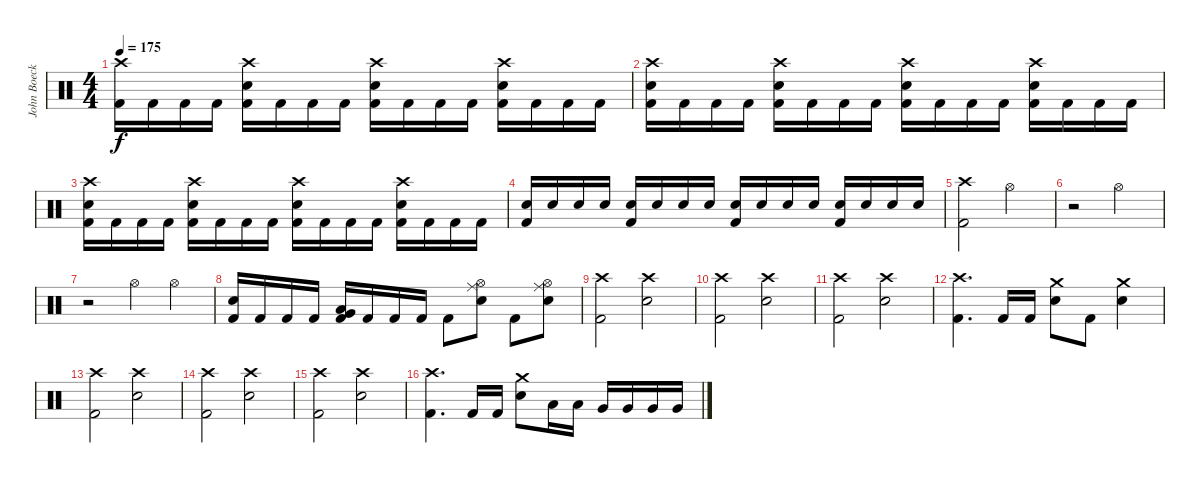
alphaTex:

\track ("John Boecklin (Drums)" "John Boeck") {instrument percussion}
\staff {score}
\articulation defaults
\ts (4 4)
\tempo 175
\clef neutral
\ks c
("Crash high (hit)" "Kick (hit) 2").16{dy f} "Kick (hit) 2".16 "Kick (hit) 2".16 "Kick (hit) 2".16 ("Crash high (hit)" "Snare (hit) 2" "Kick (hit) 2").16 "Kick (hit) 2".16 "Kick (hit) 2".16 "Kick (hit) 2".16 ("Crash high (hit)" "Snare (hit) 2" "Kick (hit) 2").16 "Kick (hit) 2".16 "Kick (hit) 2".16 "Kick (hit) 2".16 ("Crash high (hit)" "Snare (hit) 2" "Kick (hit) 2").16 "Kick (hit) 2".16 "Kick (hit) 2".16 "Kick (hit) 2".16 |
("Crash high (hit)" "Snare (hit) 2" "Kick (hit) 2").16 "Kick (hit) 2".16 "Kick (hit) 2".16 "Kick (hit) 2".16 ("Crash high (hit)" "Snare (hit) 2" "Kick (hit) 2").16 "Kick (hit) 2".16 "Kick (hit) 2".16 "Kick (hit) 2".16 ("Crash high (hit)" "Snare (hit) 2" "Kick (hit) 2").16 "Kick (hit) 2".16 "Kick (hit) 2".16 "Kick (hit) 2".16 ("Crash high (hit)" "Snare (hit) 2" "Kick (hit) 2").16 "Kick (hit) 2".16 "Kick (hit) 2".16 "Kick (hit) 2".16 |
("Crash high (hit)" "Snare (hit) 2" "Kick (hit) 2").16 "Kick (hit) 2".16 "Kick (hit) 2".16 "Kick (hit) 2".16 ("Crash high (hit)" "Snare (hit) 2" "Kick (hit) 2").16 "Kick (hit) 2".16 "Kick (hit) 2".16 "Kick (hit) 2".16 ("Crash high (hit)" "Snare (hit) 2" "Kick (hit) 2").16 "Kick (hit) 2".16 "Kick (hit) 2".16 "Kick (hit) 2".16 ("Crash high (hit)" "Snare (hit) 2" "Kick (hit) 2").16 "Kick (hit) 2".16 "Kick (hit) 2".16 "Kick (hit) 2".16 |
("Kick (hit) 2" "Snare (hit) 2").16 "Snare (hit) 2".16 "Snare (hit) 2".16 "Snare (hit) 2".16 ("Kick (hit) 2" "Snare (hit) 2").16 "Snare (hit) 2".16 "Snare (hit) 2".16 "Snare (hit) 2".16 ("Kick (hit) 2" "Snare (hit) 2").16 "Snare (hit) 2".16 "Snare (hit) 2".16 "Snare (hit) 2".16 ("Kick (hit) 2" "Snare (hit) 2").16 "Snare (hit) 2".16 "Snare (hit) 2".16 "Snare (hit) 2".16 |
("Crash high (hit)" "Kick (hit) 2").2 "Hi-Hat (open)".2 |
r.2 "Hi-Hat (open)".2 |
r.2 "Hi-Hat (open)".4 "Hi-Hat (open)".4 |
("Snare (hit) 2" "Kick (hit) 2").16 "Kick (hit) 2".16 "Kick (hit) 2".16 "Kick (hit) 2".16 ("Very Low Tom (hit)" "Low Floor Tom (hit)" "Kick (hit) 2").16 "Kick (hit) 2".16 "Kick (hit) 2".16 "Kick (hit) 2".16 "Kick (hit) 2".8 ("Hi-Hat (open)" "Ride (middle)" "Snare (hit) 2").8 "Kick (hit) 2".8 ("Hi-Hat (open)" "Ride (middle)" "Snare (hit) 2").8 |
("Crash high (hit)" "Kick (hit) 2").2 ("Crash high (hit)" "Snare (hit) 2").2 |
("Crash high (hit)" "Kick (hit) 2").2 ("Crash high (hit)" "Snare (hit) 2").2 |
("Crash high (hit)" "Kick (hit) 2").2 ("Crash high (hit)" "Snare (hit) 2").2 |
("Crash high (hit)" "Kick (hit) 2").4{d} "Kick (hit) 2".16 "Kick (hit) 2".16 ("Crash medium (hit)" "Snare (hit) 2").8 "Kick (hit) 2".8 ("Crash medium (hit)" "Snare (hit) 2").4 |
("Crash high (hit)" "Kick (hit) 2").2 ("Crash high (hit)" "Snare (hit) 2").2 |
("Crash high (hit)" "Kick (hit) 2").2 ("Crash high (hit)" "Snare (hit) 2").2 |
("Crash high (hit)" "Kick (hit) 2").2 ("Crash high (hit)" "Snare (hit) 2").2 |
("Crash high (hit)" "Kick (hit) 2").4{d} "Kick (hit) 2".16 "Kick (hit) 2".16 ("Crash medium (hit)" "Snare (hit) 2").8 "Low Tom (hit)".16 "Low Tom (hit)".16 "Very Low Tom (hit)".16 "Very Low Tom (hit)".16 "Very Low Tom (hit)".16 "Very Low Tom (hit)".16
